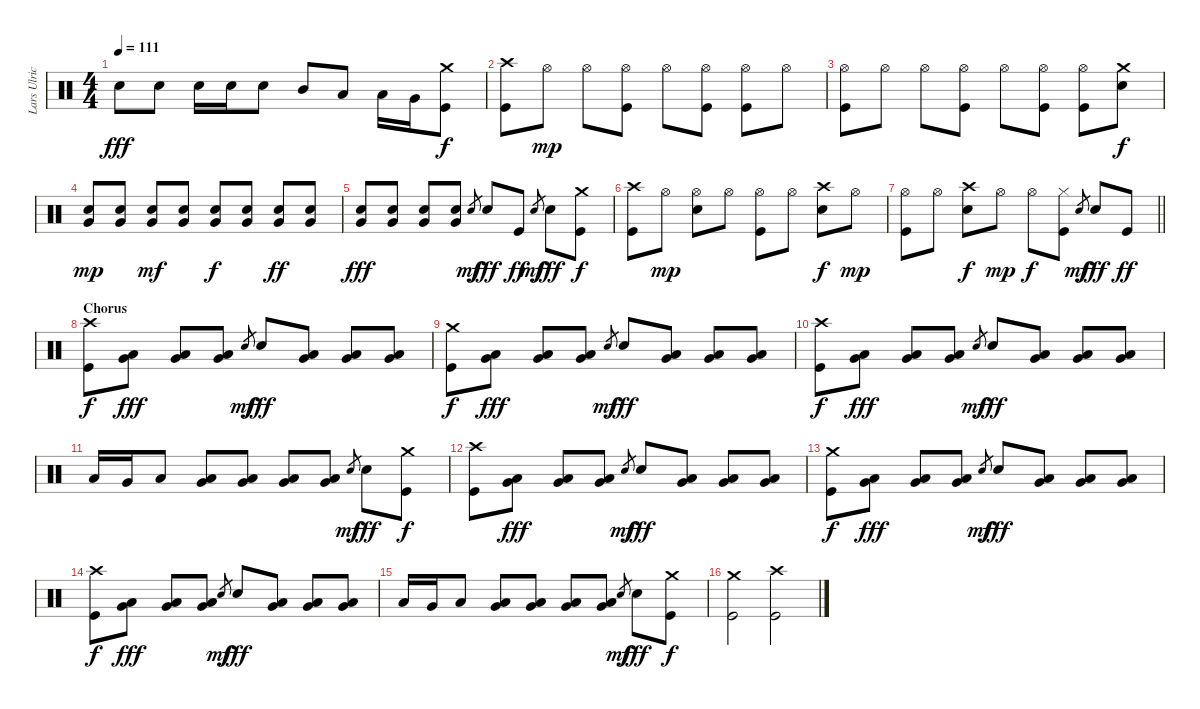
\track ("Lars Ulrich (Drums)" "Lars Ulric") {instrument percussion}
\staff {score}
\articulation defaults
\ts (4 4)
\tempo 111
\clef neutral
\ks c "Snare (hit) 2".8{dy fff} "Snare (hit) 2".8 "Snare (hit) 2".16 "Snare (hit) 2".16 "Snare (hit) 2".8 "Mid Tom (hit)".8 "Low Tom (hit)".8 "Low Tom (hit)".16 "Very Low Tom (hit)".16
("Crash medium (hit)" "Kick (hit)").8{dy f} |
("Crash high (hit)" "Kick (hit)").8 "Hi-Hat (open)".8{dy mp} "Hi-Hat (open)".8 ("Hi-Hat (open)" "Kick (hit)").8 "Hi-Hat (open)".8 ("Hi-Hat (open)" "Kick (hit)").8 ("Hi-Hat (open)" "Kick (hit)").8 "Hi-Hat (open)".8 |
("Hi-Hat (open)" "Kick (hit)").8 "Hi-Hat (open)".8 "Hi-Hat (open)".8 ("Hi-Hat (open)" "Kick (hit)").8 "Hi-Hat (open)".8 ("Hi-Hat (open)" "Kick (hit)").8 ("Hi-Hat (open)" "Kick (hit)").8 ("Crash medium (hit)" "Snare (hit) 2").8{dy f} |
("Very Low Tom (hit)" "Snare (hit) 2").8{dy mp} ("Very Low Tom (hit)" "Snare (hit) 2").8 ("Very Low Tom (hit)" "Snare (hit) 2").8{dy mf} ("Very Low Tom (hit)" "Snare (hit) 2").8 ("Very Low Tom (hit)" "Snare (hit) 2").8{dy f} ("Very Low Tom (hit)" "Snare (hit) 2").8 ("Very Low Tom (hit)" "Snare (hit) 2").8{dy ff} ("Very Low Tom (hit)" "Snare (hit) 2").8 |
("Very Low Tom (hit)" "Snare (hit) 2").8{dy fff} ("Very Low Tom (hit)" "Snare (hit) 2").8 ("Very Low Tom (hit)" "Snare (hit) 2").8 ("Very Low Tom (hit)" "Snare (hit) 2").8 "Snare (hit)".8{gr dy mf} "Snare (hit) 2".8{dy fff} "Kick (hit)".8{dy ff} "Snare (hit)".8{gr dy mf} "Snare (hit) 2".8{dy fff} ("Crash medium (hit)" "Kick (hit)").8{dy f} |
("Crash high (hit)" "Kick (hit)").8 "Hi-Hat (open)".8{dy mp} ("Hi-Hat (open)" "Snare (hit) 2").8 "Hi-Hat (open)".8 ("Hi-Hat (open)" "Kick (hit)").8 "Hi-Hat (open)".8 ("Crash high (hit)" "Snare (hit) 2").8{dy f} "Hi-Hat (open)".8{dy mp} |
\barLineRight lightlight
("Hi-Hat (open)" "Kick (hit)").8 "Hi-Hat (open)".8 ("Crash high (hit)" "Snare (hit) 2").8{dy f} "Hi-Hat (open)".8{dy mp} "Hi-Hat (open)".8{dy f} ("Hi-Hat (closed)" "Kick (hit)").8 "Snare (hit)".8{gr dy mf} "Snare (hit) 2".8{dy fff} "Kick (hit)".8{dy ff} |
\section ("" "Chorus")
("Crash high (hit)" "Kick (hit)").8{dy f} ("Low Tom (hit)" "Very Low Tom (hit)").8{dy fff} ("Low Tom (hit)" "Very Low Tom (hit)").8 ("Low Tom (hit)" "Very Low Tom (hit)").8 "Snare (hit)".8{gr dy mf} "Snare (hit) 2".8{dy fff} ("Low Tom (hit)" "Very Low Tom (hit)").8 ("Low Tom (hit)" "Very Low Tom (hit)").8 ("Very Low Tom (hit)" "Low Floor Tom (hit)").8 |
("Crash medium (hit)" "Kick (hit)").8{dy f} ("Low Tom (hit)" "Very Low Tom (hit)").8{dy fff} ("Low Tom (hit)" "Very Low Tom (hit)").8 ("Low Tom (hit)" "Very Low Tom (hit)").8 "Snare (hit)".8{gr dy mf} "Snare (hit) 2".8{dy fff} ("Low Tom (hit)" "Very Low Tom (hit)").8 ("Low Tom (hit)" "Very Low Tom (hit)").8 ("Very Low Tom (hit)" "Low Floor Tom (hit)").8 |
("Crash high (hit)" "Kick (hit)").8{dy f} ("Low Tom (hit)" "Very Low Tom (hit)").8{dy fff} ("Low Tom (hit)" "Very Low Tom (hit)").8 ("Low Tom (hit)" "Very Low Tom (hit)").8 "Snare (hit)".8{gr dy mf} "Snare (hit) 2".8{dy fff} ("Low Tom (hit)" "Very Low Tom (hit)").8 ("Low Tom (hit)" "Very Low Tom (hit)").8 ("Very Low Tom (hit)" "Low Floor Tom (hit)").8 |
"Low Tom (hit)".16 "Very Low Tom (hit)".16 "Low Floor Tom (hit)".8 ("Very Low Tom (hit)" "Low Floor Tom (hit)").8 ("Very Low Tom (hit)" "Low Floor Tom (hit)").8 ("Very Low Tom (hit)" "Low Floor Tom (hit)").8 ("Very Low Tom (hit)" "Low Floor Tom (hit)").8 "Snare (hit)".8{gr dy mf} "Snare (hit) 2".8{dy fff} ("Crash medium (hit)" "Kick (hit)").8{dy f} |
("Crash high (hit)" "Kick (hit)").8 ("Low Tom (hit)" "Very Low Tom (hit)").8{dy fff} ("Low Tom (hit)" "Very Low Tom (hit)").8 ("Low Tom (hit)" "Very Low Tom (hit)").8 "Snare (hit)".8{gr dy mf} "Snare (hit) 2".8{dy fff} ("Low Tom (hit)" "Very Low Tom (hit)").8 ("Low Tom (hit)" "Very Low Tom (hit)").8 ("Very Low Tom (hit)" "Low Floor Tom (hit)").8 |
("Crash medium (hit)" "Kick (hit)").8{dy f} ("Low Tom (hit)" "Very Low Tom (hit)").8{dy fff} ("Low Tom (hit)" "Very Low Tom (hit)").8 ("Low Tom (hit)" "Very Low Tom (hit)").8 "Snare (hit)".8{gr dy mf} "Snare (hit) 2".8{dy fff} ("Low Tom (hit)" "Very Low Tom (hit)").8 ("Low Tom (hit)" "Very Low Tom (hit)").8 ("Very Low Tom (hit)" "Low Floor Tom (hit)").8 |
("Crash high (hit)" "Kick (hit)").8{dy f} ("Low Tom (hit)" "Very Low Tom (hit)").8{dy fff} ("Low Tom (hit)" "Very Low Tom (hit)").8 ("Low Tom (hit)" "Very Low Tom (hit)").8 "Snare (hit)".8{gr dy mf} "Snare (hit) 2".8{dy fff} ("Low Tom (hit)" "Very Low Tom (hit)").8 ("Low Tom (hit)" "Very Low Tom (hit)").8 ("Very Low Tom (hit)" "Low Floor Tom (hit)").8 |
"Low Tom (hit)".16 "Very Low Tom (hit)".16 "Low Floor Tom (hit)".8 ("Very Low Tom (hit)" "Low Floor Tom (hit)").8 ("Very Low Tom (hit)" "Low Floor Tom (hit)").8 ("Very Low Tom (hit)" "Low Floor Tom (hit)").8 ("Very Low Tom (hit)" "Low Floor Tom (hit)").8 "Snare (hit)".8{gr dy mf} "Snare (hit) 2".8{dy fff} ("Crash medium (hit)" "Kick (hit)").8{dy f} |
("Crash medium (hit)" "Kick (hit)").2 ("Crash high (hit)" "Kick (hit)").2
